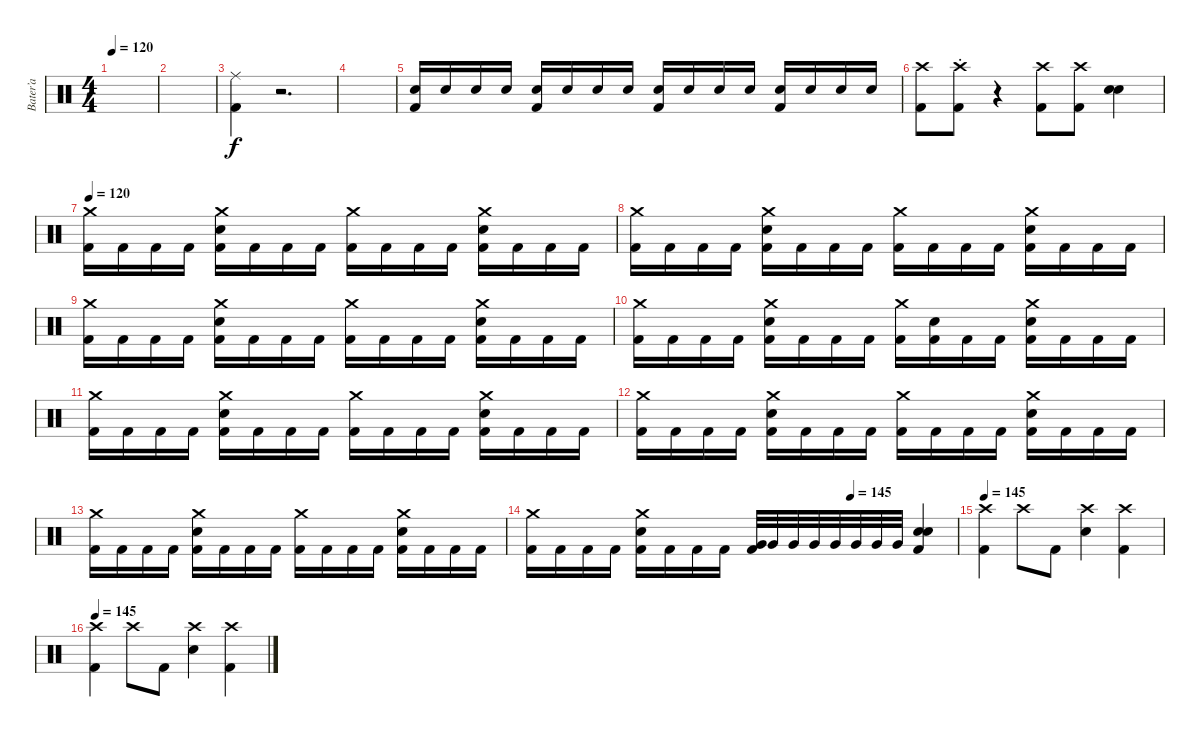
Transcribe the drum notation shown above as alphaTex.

\track ("Bater’a" "Bater’a") {instrument percussion}
\staff {score}
\articulation defaults
\ts (4 4)
\tempo 120
\clef neutral
\ks c
|
|
("Ride (middle)" "Kick (hit) 2").4 r.2{d} |
|
("Electric Snare (hit)" "Kick (hit) 2").16{volume 16} "Electric Snare (hit)".16 "Electric Snare (hit)".16 "Electric Snare (hit)".16 ("Electric Snare (hit)" "Kick (hit) 2").16 "Electric Snare (hit)".16 "Electric Snare (hit)".16 "Electric Snare (hit)".16 ("Electric Snare (hit)" "Kick (hit) 2").16 "Electric Snare (hit)".16 "Electric Snare (hit)".16 "Electric Snare (hit)".16 ("Electric Snare (hit)" "Kick (hit) 2").16 "Electric Snare (hit)".16 "Electric Snare (hit)".16 "Electric Snare (hit)".16 |
("Crash high (hit)" "Kick (hit) 2").8{volume 12} ("Crash high (hit)"{st} "Kick (hit) 2").8 r.4 ("Crash high (hit)" "Kick (hit) 2").8 ("Crash high (hit)" "Kick (hit) 2").8 ("Electric Snare (hit)" "Electric Snare (hit)").4 |
\tempo 120
("Crash medium (hit)" "Kick (hit) 2").16 "Kick (hit) 2".16 "Kick (hit) 2".16 "Kick (hit) 2".16 ("Crash medium (hit)" "Electric Snare (hit)" "Kick (hit) 2").16 "Kick (hit) 2".16 "Kick (hit) 2".16 "Kick (hit) 2".16 ("Crash medium (hit)" "Kick (hit) 2").16 "Kick (hit) 2".16 "Kick (hit) 2".16 "Kick (hit) 2".16 ("Crash medium (hit)" "Electric Snare (hit)" "Kick (hit) 2").16 "Kick (hit) 2".16 "Kick (hit) 2".16 "Kick (hit) 2".16 |
("Crash medium (hit)" "Kick (hit) 2").16 "Kick (hit) 2".16 "Kick (hit) 2".16 "Kick (hit) 2".16 ("Crash medium (hit)" "Electric Snare (hit)" "Kick (hit) 2").16 "Kick (hit) 2".16 "Kick (hit) 2".16 "Kick (hit) 2".16 ("Crash medium (hit)" "Kick (hit) 2").16 "Kick (hit) 2".16 "Kick (hit) 2".16 "Kick (hit) 2".16 ("Crash medium (hit)" "Electric Snare (hit)" "Kick (hit) 2").16 "Kick (hit) 2".16 "Kick (hit) 2".16 "Kick (hit) 2".16 |
("Crash medium (hit)" "Kick (hit) 2").16 "Kick (hit) 2".16 "Kick (hit) 2".16 "Kick (hit) 2".16 ("Crash medium (hit)" "Electric Snare (hit)" "Kick (hit) 2").16 "Kick (hit) 2".16 "Kick (hit) 2".16 "Kick (hit) 2".16 ("Crash medium (hit)" "Kick (hit) 2").16 "Kick (hit) 2".16 "Kick (hit) 2".16 "Kick (hit) 2".16 ("Crash medium (hit)" "Electric Snare (hit)" "Kick (hit) 2").16 "Kick (hit) 2".16 "Kick (hit) 2".16 "Kick (hit) 2".16 |
("Crash medium (hit)" "Kick (hit) 2").16 "Kick (hit) 2".16 "Kick (hit) 2".16 "Kick (hit) 2".16 ("Crash medium (hit)" "Electric Snare (hit)" "Kick (hit) 2").16 "Kick (hit) 2".16 "Kick (hit) 2".16 "Kick (hit) 2".16 ("Crash medium (hit)" "Kick (hit) 2").16 ("Electric Snare (hit)" "Kick (hit) 2").16 "Kick (hit) 2".16 "Kick (hit) 2".16 ("Crash medium (hit)" "Electric Snare (hit)" "Kick (hit) 2").16 "Kick (hit) 2".16 "Kick (hit) 2".16 "Kick (hit) 2".16 |
("Crash medium (hit)" "Kick (hit) 2").16 "Kick (hit) 2".16 "Kick (hit) 2".16 "Kick (hit) 2".16 ("Crash medium (hit)" "Electric Snare (hit)" "Kick (hit) 2").16 "Kick (hit) 2".16 "Kick (hit) 2".16 "Kick (hit) 2".16 ("Crash medium (hit)" "Kick (hit) 2").16 "Kick (hit) 2".16 "Kick (hit) 2".16 "Kick (hit) 2".16 ("Crash medium (hit)" "Electric Snare (hit)" "Kick (hit) 2").16 "Kick (hit) 2".16 "Kick (hit) 2".16 "Kick (hit) 2".16 |
("Crash medium (hit)" "Kick (hit) 2").16 "Kick (hit) 2".16 "Kick (hit) 2".16 "Kick (hit) 2".16 ("Crash medium (hit)" "Electric Snare (hit)" "Kick (hit) 2").16 "Kick (hit) 2".16 "Kick (hit) 2".16 "Kick (hit) 2".16 ("Crash medium (hit)" "Kick (hit) 2").16 "Kick (hit) 2".16 "Kick (hit) 2".16 "Kick (hit) 2".16 ("Crash medium (hit)" "Electric Snare (hit)" "Kick (hit) 2").16 "Kick (hit) 2".16 "Kick (hit) 2".16 "Kick (hit) 2".16 |
("Crash medium (hit)" "Kick (hit) 2").16 "Kick (hit) 2".16 "Kick (hit) 2".16 "Kick (hit) 2".16 ("Crash medium (hit)" "Electric Snare (hit)" "Kick (hit) 2").16 "Kick (hit) 2".16 "Kick (hit) 2".16 "Kick (hit) 2".16 ("Crash medium (hit)" "Kick (hit) 2").16 "Kick (hit) 2".16 "Kick (hit) 2".16 "Kick (hit) 2".16 ("Crash medium (hit)" "Electric Snare (hit)" "Kick (hit) 2").16 "Kick (hit) 2".16 "Kick (hit) 2".16 "Kick (hit) 2".16 |
\tempo (145 0.75)
("Crash medium (hit)" "Kick (hit) 2").16 "Kick (hit) 2".16 "Kick (hit) 2".16 "Kick (hit) 2".16 ("Crash medium (hit)" "Electric Snare (hit)" "Kick (hit) 2").16 "Kick (hit) 2".16 "Kick (hit) 2".16 "Kick (hit) 2".16 ("Very Low Tom (hit)" "Kick (hit) 2").32 "Very Low Tom (hit)".32 "Very Low Tom (hit)".32 "Very Low Tom (hit)".32 "Very Low Tom (hit)".32 "Very Low Tom (hit)".32 "Very Low Tom (hit)".32 "Very Low Tom (hit)".32 ("Electric Snare (hit)" "Electric Snare (hit)" "Kick (hit) 2").4 |
\tempo 145
("Crash high (hit)" "Kick (hit) 2").4 "Crash high (hit)".8 "Kick (hit) 2".8 ("Crash high (hit)" "Electric Snare (hit)").4 ("Crash high (hit)" "Kick (hit) 2").4 |
\tempo 145
("Crash high (hit)" "Kick (hit) 2").4 "Crash high (hit)".8 "Kick (hit) 2".8 ("Crash high (hit)" "Electric Snare (hit)").4 ("Crash high (hit)" "Kick (hit) 2").4
